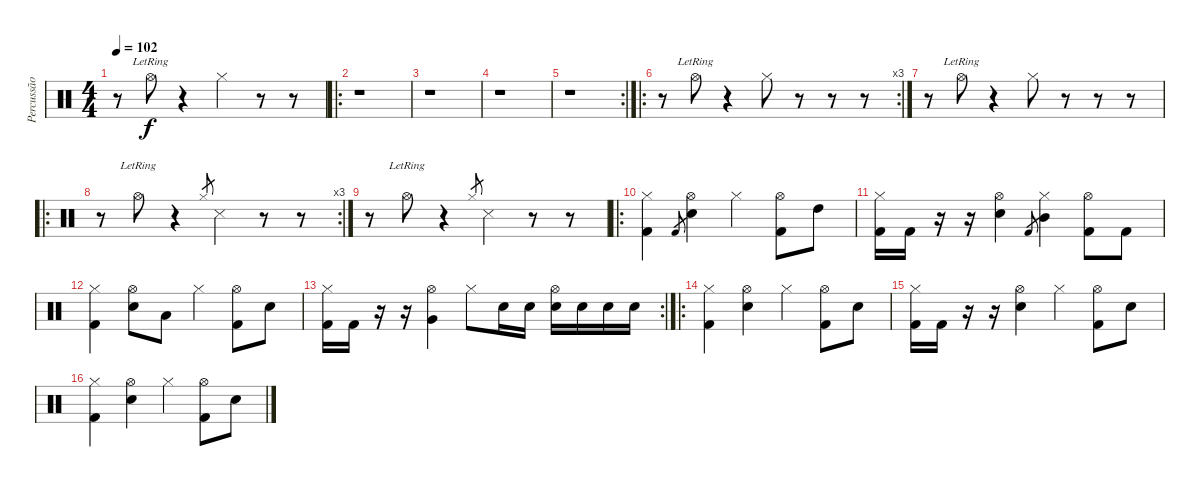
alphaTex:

\track ("Percussão" "Percussão") {instrument percussion}
\staff {score}
\articulation defaults
\ts (4 4)
\tempo 102
\clef neutral
\ks c
r.8{dy f} "Hi-Hat (open)"{lr}.8 r.4 "Hi-Hat (closed)".4 r.8 r.8 |
\ro
r.1 |
r.1 |
r.1 |
\rc 2
r.1 |
\ro
\rc 3
r.8 "Hi-Hat (open)"{lr}.8 r.4 "Hi-Hat (closed)".8 r.8 r.8 r.8 |
r.8 "Hi-Hat (open)"{lr}.8 r.4 "Hi-Hat (closed)".8 r.8 r.8 r.8 |
\ro
\rc 3
r.8 "Hi-Hat (open)"{lr}.8 r.4 "Hi-Hat (closed)".8{gr} "Snare (side stick) 3".4 r.8 r.8 |
r.8 "Hi-Hat (open)"{lr}.8 r.4 "Hi-Hat (closed)".8{gr} "Snare (side stick) 3".4 r.8 r.8 |
\ro
("Hi-Hat (closed)" "Kick (hit) 2").4 "Kick (hit) 2".8{gr} ("Hi-Hat (open)" "Snare (hit) 2").4 "Hi-Hat (closed)".4 ("Hi-Hat (open)" "Kick (hit) 2").8 "High Tom (hit)".8 |
("Hi-Hat (closed)" "Kick (hit) 2").16 "Kick (hit) 2".16 r.16 r.16 ("Hi-Hat (open)" "Snare (hit) 2").4 "Kick (hit) 2".8{gr} ("Hi-Hat (closed)" "Mid Tom (hit)").4 ("Hi-Hat (open)" "Kick (hit) 2").8 "Kick (hit) 2".8 |
("Hi-Hat (closed)" "Kick (hit) 2").4 ("Hi-Hat (open)" "Snare (hit) 2").8 "Low Tom (hit)".8 "Hi-Hat (closed)".4 ("Hi-Hat (open)" "Kick (hit) 2").8 "Snare (hit) 2".8 |
\rc 2
("Hi-Hat (closed)" "Kick (hit) 2").16 "Kick (hit) 2".16 r.16 r.16 ("Hi-Hat (open)" "Very Low Tom (hit)").4 "Hi-Hat (closed)".8 "Snare (hit) 2".16 "Snare (hit) 2".16 ("Hi-Hat (open)" "Snare (hit) 2").16 "Snare (hit) 2".16 "Snare (hit) 2".16 "Snare (hit) 2".16 |
\ro
("Hi-Hat (closed)" "Kick (hit) 2").4 ("Hi-Hat (open)" "Snare (hit) 2").4 "Hi-Hat (closed)".4 ("Hi-Hat (open)" "Kick (hit) 2").8 "Snare (hit) 2".8 |
("Hi-Hat (closed)" "Kick (hit) 2").16 "Kick (hit) 2".16 r.16 r.16 ("Hi-Hat (open)" "Snare (hit) 2").4 "Hi-Hat (closed)".4 ("Hi-Hat (open)" "Kick (hit) 2").8 "Snare (hit) 2".8 |
("Hi-Hat (closed)" "Kick (hit) 2").4 ("Hi-Hat (open)" "Snare (hit) 2").4 "Hi-Hat (closed)".4 ("Hi-Hat (open)" "Kick (hit) 2").8 "Snare (hit) 2".8
